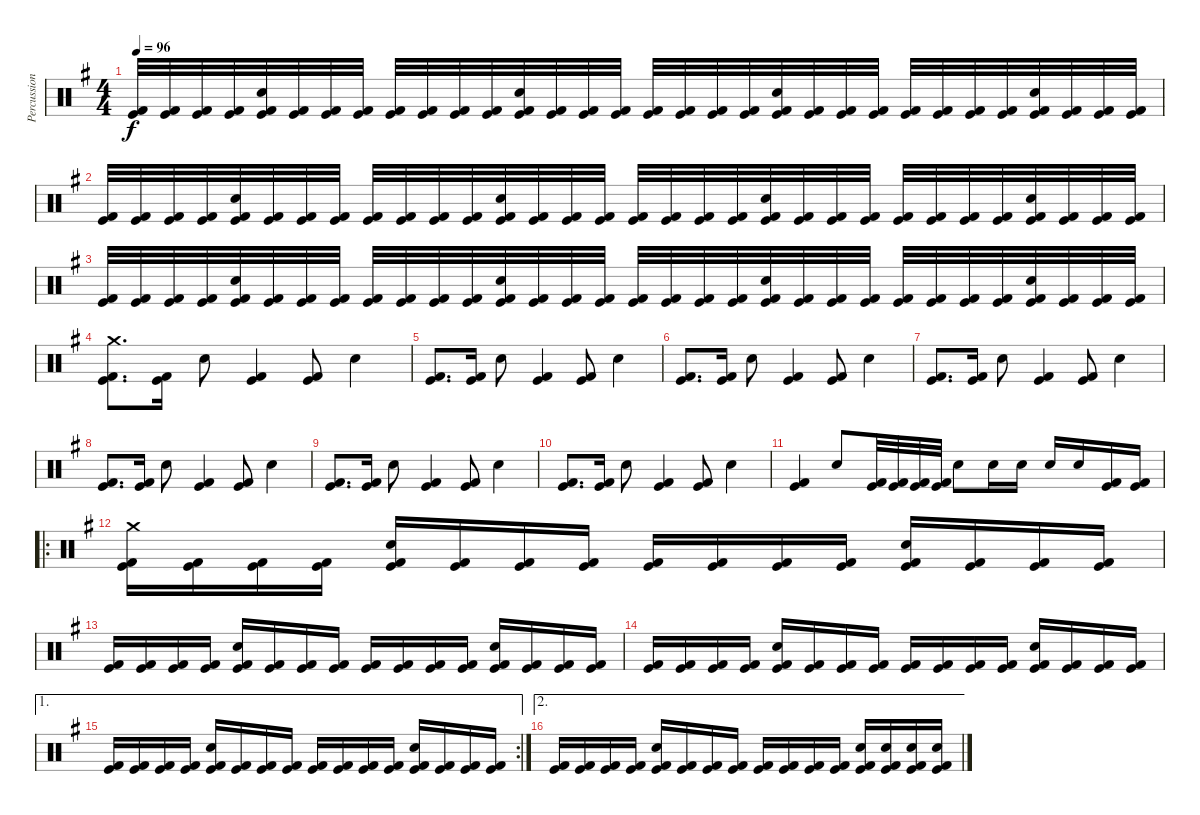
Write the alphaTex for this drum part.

\track ("Percussion" "Percussion") {instrument percussion}
\staff {score}
\articulation defaults
\ts (4 4)
\tempo 96
\clef neutral
\ks g
("Kick (hit)" "Kick (hit) 2").32{dy f} ("Kick (hit)" "Kick (hit) 2").32 ("Kick (hit)" "Kick (hit) 2").32 ("Kick (hit)" "Kick (hit) 2").32 ("Electric Snare (hit)" "Kick (hit)" "Kick (hit) 2").32 ("Kick (hit)" "Kick (hit) 2").32 ("Kick (hit)" "Kick (hit) 2").32 ("Kick (hit)" "Kick (hit) 2").32 ("Kick (hit)" "Kick (hit) 2").32 ("Kick (hit)" "Kick (hit) 2").32 ("Kick (hit)" "Kick (hit) 2").32 ("Kick (hit)" "Kick (hit) 2").32 ("Electric Snare (hit)" "Kick (hit)" "Kick (hit) 2").32 ("Kick (hit)" "Kick (hit) 2").32 ("Kick (hit)" "Kick (hit) 2").32 ("Kick (hit)" "Kick (hit) 2").32 ("Kick (hit)" "Kick (hit) 2").32 ("Kick (hit)" "Kick (hit) 2").32 ("Kick (hit)" "Kick (hit) 2").32 ("Kick (hit)" "Kick (hit) 2").32 ("Electric Snare (hit)" "Kick (hit)" "Kick (hit) 2").32 ("Kick (hit)" "Kick (hit) 2").32 ("Kick (hit)" "Kick (hit) 2").32 ("Kick (hit)" "Kick (hit) 2").32 ("Kick (hit)" "Kick (hit) 2").32 ("Kick (hit)" "Kick (hit) 2").32 ("Kick (hit)" "Kick (hit) 2").32 ("Kick (hit)" "Kick (hit) 2").32 ("Electric Snare (hit)" "Kick (hit)" "Kick (hit) 2").32 ("Kick (hit)" "Kick (hit) 2").32 ("Kick (hit)" "Kick (hit) 2").32 ("Kick (hit)" "Kick (hit) 2").32 |
("Kick (hit)" "Kick (hit) 2").32 ("Kick (hit)" "Kick (hit) 2").32 ("Kick (hit)" "Kick (hit) 2").32 ("Kick (hit)" "Kick (hit) 2").32 ("Electric Snare (hit)" "Kick (hit)" "Kick (hit) 2").32 ("Kick (hit)" "Kick (hit) 2").32 ("Kick (hit)" "Kick (hit) 2").32 ("Kick (hit)" "Kick (hit) 2").32 ("Kick (hit)" "Kick (hit) 2").32 ("Kick (hit)" "Kick (hit) 2").32 ("Kick (hit)" "Kick (hit) 2").32 ("Kick (hit)" "Kick (hit) 2").32 ("Electric Snare (hit)" "Kick (hit)" "Kick (hit) 2").32 ("Kick (hit)" "Kick (hit) 2").32 ("Kick (hit)" "Kick (hit) 2").32 ("Kick (hit)" "Kick (hit) 2").32 ("Kick (hit)" "Kick (hit) 2").32 ("Kick (hit)" "Kick (hit) 2").32 ("Kick (hit)" "Kick (hit) 2").32 ("Kick (hit)" "Kick (hit) 2").32 ("Electric Snare (hit)" "Kick (hit)" "Kick (hit) 2").32 ("Kick (hit)" "Kick (hit) 2").32 ("Kick (hit)" "Kick (hit) 2").32 ("Kick (hit)" "Kick (hit) 2").32 ("Kick (hit)" "Kick (hit) 2").32 ("Kick (hit)" "Kick (hit) 2").32 ("Kick (hit)" "Kick (hit) 2").32 ("Kick (hit)" "Kick (hit) 2").32 ("Electric Snare (hit)" "Kick (hit)" "Kick (hit) 2").32 ("Kick (hit)" "Kick (hit) 2").32 ("Kick (hit)" "Kick (hit) 2").32 ("Kick (hit)" "Kick (hit) 2").32 |
("Kick (hit)" "Kick (hit) 2").32 ("Kick (hit)" "Kick (hit) 2").32 ("Kick (hit)" "Kick (hit) 2").32 ("Kick (hit)" "Kick (hit) 2").32 ("Electric Snare (hit)" "Kick (hit)" "Kick (hit) 2").32 ("Kick (hit)" "Kick (hit) 2").32 ("Kick (hit)" "Kick (hit) 2").32 ("Kick (hit)" "Kick (hit) 2").32 ("Kick (hit)" "Kick (hit) 2").32 ("Kick (hit)" "Kick (hit) 2").32 ("Kick (hit)" "Kick (hit) 2").32 ("Kick (hit)" "Kick (hit) 2").32 ("Electric Snare (hit)" "Kick (hit)" "Kick (hit) 2").32 ("Kick (hit)" "Kick (hit) 2").32 ("Kick (hit)" "Kick (hit) 2").32 ("Kick (hit)" "Kick (hit) 2").32 ("Kick (hit)" "Kick (hit) 2").32 ("Kick (hit)" "Kick (hit) 2").32 ("Kick (hit)" "Kick (hit) 2").32 ("Kick (hit)" "Kick (hit) 2").32 ("Electric Snare (hit)" "Kick (hit)" "Kick (hit) 2").32 ("Kick (hit)" "Kick (hit) 2").32 ("Kick (hit)" "Kick (hit) 2").32 ("Kick (hit)" "Kick (hit) 2").32 ("Kick (hit)" "Kick (hit) 2").32 ("Kick (hit)" "Kick (hit) 2").32 ("Kick (hit)" "Kick (hit) 2").32 ("Kick (hit)" "Kick (hit) 2").32 ("Electric Snare (hit)" "Kick (hit)" "Kick (hit) 2").32 ("Kick (hit)" "Kick (hit) 2").32 ("Kick (hit)" "Kick (hit) 2").32 ("Kick (hit)" "Kick (hit) 2").32 |
("Crash medium (hit)" "Kick (hit) 2" "Kick (hit)").8{d} ("Kick (hit) 2" "Kick (hit)").16 "Electric Snare (hit)".8 ("Kick (hit) 2" "Kick (hit)").4 ("Kick (hit) 2" "Kick (hit)").8 "Electric Snare (hit)".4 |
("Kick (hit) 2" "Kick (hit)").8{d} ("Kick (hit) 2" "Kick (hit)").16 "Electric Snare (hit)".8 ("Kick (hit) 2" "Kick (hit)").4 ("Kick (hit) 2" "Kick (hit)").8 "Electric Snare (hit)".4 |
("Kick (hit) 2" "Kick (hit)").8{d} ("Kick (hit) 2" "Kick (hit)").16 "Electric Snare (hit)".8 ("Kick (hit) 2" "Kick (hit)").4 ("Kick (hit) 2" "Kick (hit)").8 "Electric Snare (hit)".4 |
("Kick (hit) 2" "Kick (hit)").8{d} ("Kick (hit) 2" "Kick (hit)").16 "Electric Snare (hit)".8 ("Kick (hit) 2" "Kick (hit)").4 ("Kick (hit) 2" "Kick (hit)").8 "Electric Snare (hit)".4 |
("Kick (hit) 2" "Kick (hit)").8{d} ("Kick (hit) 2" "Kick (hit)").16 "Electric Snare (hit)".8 ("Kick (hit) 2" "Kick (hit)").4 ("Kick (hit) 2" "Kick (hit)").8 "Electric Snare (hit)".4 |
("Kick (hit) 2" "Kick (hit)").8{d} ("Kick (hit) 2" "Kick (hit)").16 "Electric Snare (hit)".8 ("Kick (hit) 2" "Kick (hit)").4 ("Kick (hit) 2" "Kick (hit)").8 "Electric Snare (hit)".4 |
("Kick (hit) 2" "Kick (hit)").8{d} ("Kick (hit) 2" "Kick (hit)").16 "Electric Snare (hit)".8 ("Kick (hit) 2" "Kick (hit)").4 ("Kick (hit) 2" "Kick (hit)").8 "Electric Snare (hit)".4 |
("Kick (hit) 2" "Kick (hit)").4 "Electric Snare (hit)".8 ("Kick (hit) 2" "Kick (hit)").32 ("Kick (hit) 2" "Kick (hit)").32 ("Kick (hit) 2" "Kick (hit)").32 ("Kick (hit) 2" "Kick (hit)").32 "Electric Snare (hit)".8 "Electric Snare (hit)".16 "Electric Snare (hit)".16 "Electric Snare (hit)".16 "Electric Snare (hit)".16 ("Kick (hit) 2" "Kick (hit)").16 ("Kick (hit) 2" "Kick (hit)").16 |
\ro
("Crash medium (hit)" "Kick (hit)" "Kick (hit) 2").16 ("Kick (hit)" "Kick (hit) 2").16 ("Kick (hit)" "Kick (hit) 2").16 ("Kick (hit)" "Kick (hit) 2").16 ("Electric Snare (hit)" "Kick (hit)" "Kick (hit) 2").16 ("Kick (hit)" "Kick (hit) 2").16 ("Kick (hit)" "Kick (hit) 2").16 ("Kick (hit)" "Kick (hit) 2").16 ("Kick (hit)" "Kick (hit) 2").16 ("Kick (hit)" "Kick (hit) 2").16 ("Kick (hit)" "Kick (hit) 2").16 ("Kick (hit)" "Kick (hit) 2").16 ("Electric Snare (hit)" "Kick (hit)" "Kick (hit) 2").16 ("Kick (hit)" "Kick (hit) 2").16 ("Kick (hit)" "Kick (hit) 2").16 ("Kick (hit)" "Kick (hit) 2").16 |
("Kick (hit)" "Kick (hit) 2").16 ("Kick (hit)" "Kick (hit) 2").16 ("Kick (hit)" "Kick (hit) 2").16 ("Kick (hit)" "Kick (hit) 2").16 ("Electric Snare (hit)" "Kick (hit)" "Kick (hit) 2").16 ("Kick (hit)" "Kick (hit) 2").16 ("Kick (hit)" "Kick (hit) 2").16 ("Kick (hit)" "Kick (hit) 2").16 ("Kick (hit)" "Kick (hit) 2").16 ("Kick (hit)" "Kick (hit) 2").16 ("Kick (hit)" "Kick (hit) 2").16 ("Kick (hit)" "Kick (hit) 2").16 ("Electric Snare (hit)" "Kick (hit)" "Kick (hit) 2").16 ("Kick (hit)" "Kick (hit) 2").16 ("Kick (hit)" "Kick (hit) 2").16 ("Kick (hit)" "Kick (hit) 2").16 |
("Kick (hit)" "Kick (hit) 2").16 ("Kick (hit)" "Kick (hit) 2").16 ("Kick (hit)" "Kick (hit) 2").16 ("Kick (hit)" "Kick (hit) 2").16 ("Electric Snare (hit)" "Kick (hit)" "Kick (hit) 2").16 ("Kick (hit)" "Kick (hit) 2").16 ("Kick (hit)" "Kick (hit) 2").16 ("Kick (hit)" "Kick (hit) 2").16 ("Kick (hit)" "Kick (hit) 2").16 ("Kick (hit)" "Kick (hit) 2").16 ("Kick (hit)" "Kick (hit) 2").16 ("Kick (hit)" "Kick (hit) 2").16 ("Electric Snare (hit)" "Kick (hit)" "Kick (hit) 2").16 ("Kick (hit)" "Kick (hit) 2").16 ("Kick (hit)" "Kick (hit) 2").16 ("Kick (hit)" "Kick (hit) 2").16 |
\ae 1
\rc 2
("Kick (hit)" "Kick (hit) 2").16 ("Kick (hit)" "Kick (hit) 2").16 ("Kick (hit)" "Kick (hit) 2").16 ("Kick (hit)" "Kick (hit) 2").16 ("Electric Snare (hit)" "Kick (hit)" "Kick (hit) 2").16 ("Kick (hit)" "Kick (hit) 2").16 ("Kick (hit)" "Kick (hit) 2").16 ("Kick (hit)" "Kick (hit) 2").16 ("Kick (hit)" "Kick (hit) 2").16 ("Kick (hit)" "Kick (hit) 2").16 ("Kick (hit)" "Kick (hit) 2").16 ("Kick (hit)" "Kick (hit) 2").16 ("Electric Snare (hit)" "Kick (hit)" "Kick (hit) 2").16 ("Kick (hit)" "Kick (hit) 2").16 ("Kick (hit)" "Kick (hit) 2").16 ("Kick (hit)" "Kick (hit) 2").16 |
\ae 2
("Kick (hit)" "Kick (hit) 2").16 ("Kick (hit)" "Kick (hit) 2").16 ("Kick (hit)" "Kick (hit) 2").16 ("Kick (hit)" "Kick (hit) 2").16 ("Electric Snare (hit)" "Kick (hit)" "Kick (hit) 2").16 ("Kick (hit)" "Kick (hit) 2").16 ("Kick (hit)" "Kick (hit) 2").16 ("Kick (hit)" "Kick (hit) 2").16 ("Kick (hit)" "Kick (hit) 2").16 ("Kick (hit)" "Kick (hit) 2").16 ("Kick (hit)" "Kick (hit) 2").16 ("Kick (hit)" "Kick (hit) 2").16 ("Electric Snare (hit)" "Kick (hit)" "Kick (hit) 2").16 ("Electric Snare (hit)" "Kick (hit)" "Kick (hit) 2").16 ("Electric Snare (hit)" "Kick (hit)" "Kick (hit) 2").16 ("Electric Snare (hit)" "Kick (hit)" "Kick (hit) 2").16
